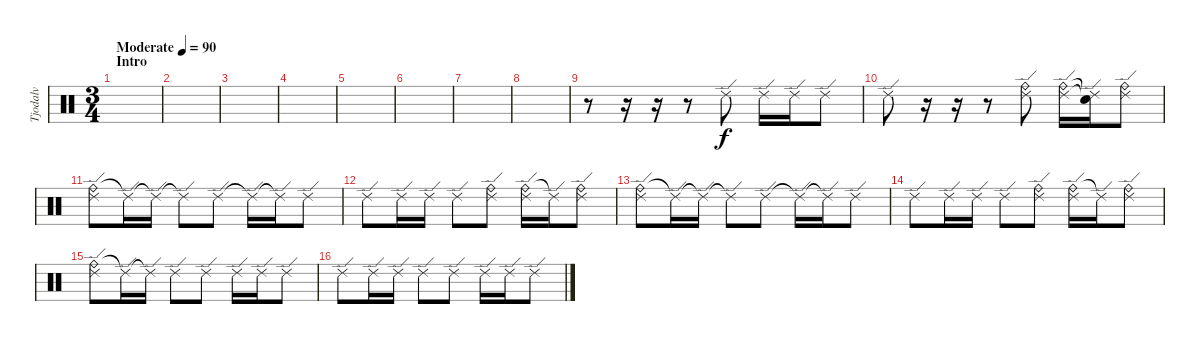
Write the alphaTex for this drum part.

\track ("Tjodalv" "Tjodalv") {instrument percussion}
\staff {score}
\articulation defaults
\ts (3 4)
\section ("" "Intro")
\tempo (90 "Moderate")
\clef neutral
\ks c
|
|
|
|
|
|
|
|
r.8 r.16 r.16 r.8 "Ride (edge) 2".8 "Ride (edge) 2".16 "Ride (edge) 2".16 "Ride (edge) 2".8 |
"Ride (edge) 2".8 r.16 r.16 r.8 ("Ride (bell)" "Ride (edge) 2").8 ("Ride (bell)" "Ride (edge) 2").16 ("Ride (edge) 2"{t} "Snare (hit)"{t}).16 ("Ride (bell)" "Ride (edge) 2").8 |
("Ride (bell)" "Ride (edge) 2").8 "Ride (edge) 2"{t}.16 "Ride (edge) 2"{t}.16 "Ride (edge) 2"{t}.8 "Ride (edge) 2".8 "Ride (edge) 2"{t}.16 "Ride (edge) 2"{t}.16 "Ride (edge) 2".8 |
"Ride (edge) 2".8 "Ride (edge) 2".16 "Ride (edge) 2".16 "Ride (edge) 2".8 ("Ride (bell)" "Ride (edge) 2").8 ("Ride (bell)" "Ride (edge) 2").16 "Ride (edge) 2"{t}.16 ("Ride (bell)" "Ride (edge) 2").8 |
("Ride (bell)" "Ride (edge) 2").8 "Ride (edge) 2"{t}.16 "Ride (edge) 2"{t}.16 "Ride (edge) 2"{t}.8 "Ride (edge) 2".8 "Ride (edge) 2"{t}.16 "Ride (edge) 2"{t}.16 "Ride (edge) 2".8 |
"Ride (edge) 2".8 "Ride (edge) 2".16 "Ride (edge) 2".16 "Ride (edge) 2".8 ("Ride (bell)" "Ride (edge) 2").8 ("Ride (bell)" "Ride (edge) 2").16 "Ride (edge) 2"{t}.16 ("Ride (bell)" "Ride (edge) 2").8 |
("Ride (bell)" "Ride (edge) 2").8 "Ride (edge) 2"{t}.16 "Ride (edge) 2"{t}.16 "Ride (edge) 2".8 "Ride (edge) 2".8 "Ride (edge) 2".16 "Ride (edge) 2".16 "Ride (edge) 2".8 |
"Ride (edge) 2".8 "Ride (edge) 2".16 "Ride (edge) 2".16 "Ride (edge) 2".8 "Ride (edge) 2".8 "Ride (edge) 2".16 "Ride (edge) 2".16 "Ride (edge) 2".8
